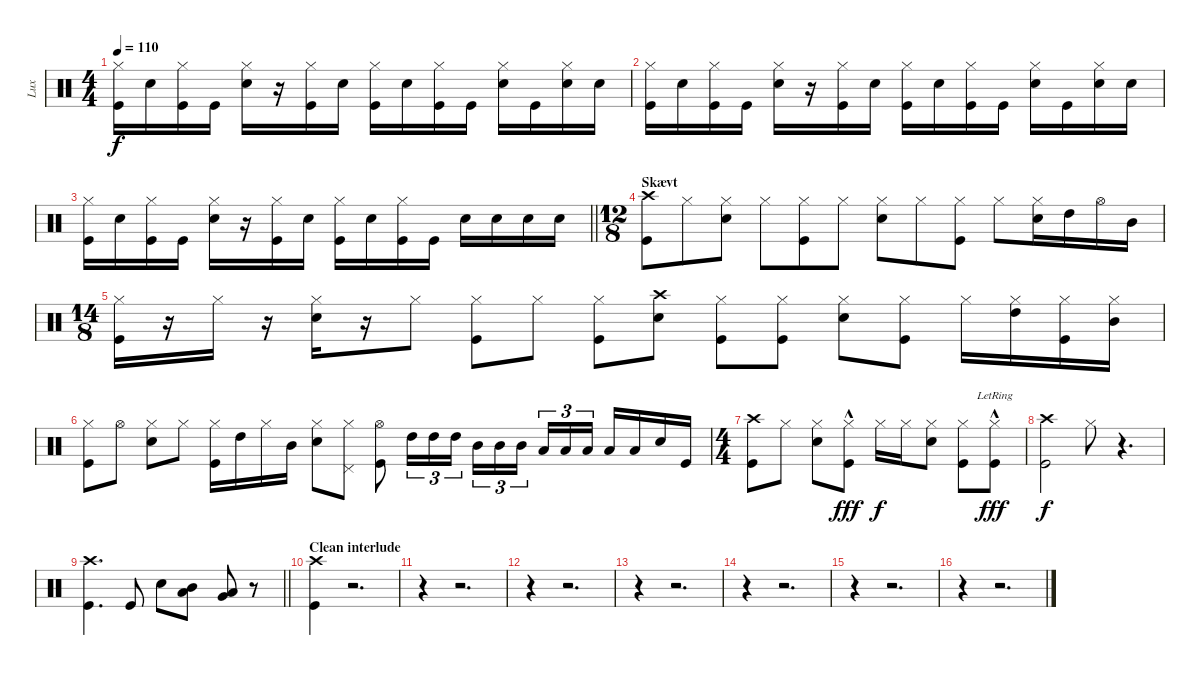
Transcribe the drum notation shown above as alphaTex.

\track ("Lux" "Lux") {instrument percussion}
\staff {score}
\articulation defaults
\ts (4 4)
\tempo 110
\clef neutral
\ks c
("Hi-Hat (closed)" "Kick (hit)").16{dy f} "Snare (hit) 2".16 ("Hi-Hat (closed)" "Kick (hit)").16 "Kick (hit)".16 ("Hi-Hat (closed)" "Snare (hit) 2").16 r.16 ("Hi-Hat (closed)" "Kick (hit)").16 "Snare (hit) 2".16 ("Hi-Hat (closed)" "Kick (hit)").16 "Snare (hit) 2".16 ("Hi-Hat (closed)" "Kick (hit)").16 "Kick (hit)".16 ("Hi-Hat (closed)" "Snare (hit) 2").16 "Kick (hit)".16 ("Hi-Hat (closed)" "Snare (hit) 2").16 "Snare (hit) 2".16 |
("Hi-Hat (closed)" "Kick (hit)").16 "Snare (hit) 2".16 ("Hi-Hat (closed)" "Kick (hit)").16 "Kick (hit)".16 ("Hi-Hat (closed)" "Snare (hit) 2").16 r.16 ("Hi-Hat (closed)" "Kick (hit)").16 "Snare (hit) 2".16 ("Hi-Hat (closed)" "Kick (hit)").16 "Snare (hit) 2".16 ("Hi-Hat (closed)" "Kick (hit)").16 "Kick (hit)".16 ("Hi-Hat (closed)" "Snare (hit) 2").16 "Kick (hit)".16 ("Hi-Hat (closed)" "Snare (hit) 2").16 "Snare (hit) 2".16 |
\barLineRight lightlight
("Hi-Hat (closed)" "Kick (hit)").16 "Snare (hit) 2".16 ("Hi-Hat (closed)" "Kick (hit)").16 "Kick (hit)".16 ("Hi-Hat (closed)" "Snare (hit) 2").16 r.16 ("Hi-Hat (closed)" "Kick (hit)").16 "Snare (hit) 2".16 ("Hi-Hat (closed)" "Kick (hit)").16 "Snare (hit) 2".16 ("Hi-Hat (closed)" "Kick (hit)").16 "Kick (hit)".16 "Snare (hit) 2".16 "Snare (hit) 2".16 "Snare (hit) 2".16 "Snare (hit) 2".16 |
\ts (12 8)
\section ("" "Skævt")
("Crash high (hit)" "Kick (hit)").8 "Hi-Hat (closed)".8 ("Hi-Hat (closed)" "Snare (hit) 2").8 "Hi-Hat (closed)".8 ("Hi-Hat (closed)" "Kick (hit)").8 "Hi-Hat (closed)".8 ("Hi-Hat (closed)" "Snare (hit) 2").8 "Hi-Hat (closed)".8 ("Hi-Hat (closed)" "Kick (hit)").8 "Hi-Hat (closed)".8 ("Hi-Hat (closed)" "Snare (hit) 2").16 "High Tom (hit)".16 "Hi-Hat (open)".16 "Mid Tom (hit)".16 |
\ts (14 8)
("Hi-Hat (closed)" "Kick (hit)").16 r.16 "Hi-Hat (closed)".16 r.16 ("Hi-Hat (closed)" "Snare (hit) 2").16 r.16 "Hi-Hat (closed)".8 ("Hi-Hat (closed)" "Kick (hit)").8 "Hi-Hat (closed)".8 ("Hi-Hat (closed)" "Kick (hit)").8 ("Crash high (hit)" "Snare (hit) 2").8 ("Hi-Hat (closed)" "Kick (hit)").8 ("Hi-Hat (closed)" "Kick (hit)").8 ("Hi-Hat (closed)" "Snare (hit) 2").8 ("Hi-Hat (closed)" "Kick (hit)").8 "Hi-Hat (closed)".16 ("Hi-Hat (closed)" "High Tom (hit)").16 ("Hi-Hat (closed)" "Kick (hit)").16 ("Hi-Hat (closed)" "Mid Tom (hit)").16 |
("Hi-Hat (closed)" "Kick (hit)").8 "Hi-Hat (open)".8 ("Hi-Hat (closed)" "Snare (hit) 2").8 "Hi-Hat (closed)".8 ("Hi-Hat (closed)" "Kick (hit)").16 "High Tom (hit)".16 "Hi-Hat (closed)".16 "Mid Tom (hit)".16 ("Hi-Hat (closed)" "Snare (hit) 2").8 ("Hi-Hat (closed)" "Pedal Hi-Hat (hit)").8 ("Hi-Hat (open)" "Kick (hit)").8 "High Tom (hit)".16{tu (3 2)} "High Tom (hit)".16{tu (3 2)} "High Tom (hit)".16{tu (3 2)} "Mid Tom (hit)".16{tu (3 2)} "Mid Tom (hit)".16{tu (3 2)} "Mid Tom (hit)".16{tu (3 2)} "Low Tom (hit)".16{tu (3 2)} "Low Tom (hit)".16{tu (3 2)} "Low Tom (hit)".16{tu (3 2)} "Low Tom (hit)".16 "Low Tom (hit)".16 "Snare (hit) 2".16 "Kick (hit)".16 |
\ts (4 4)
("Crash high (hit)" "Kick (hit)").8 "Hi-Hat (closed)".8 ("Hi-Hat (closed)" "Snare (hit) 2").8 ("Hi-Hat (closed)"{hac} "Kick (hit)").8{dy fff} "Hi-Hat (closed)".16{dy f} "Hi-Hat (closed)".16 ("Hi-Hat (closed)" "Snare (hit) 2").8 ("Hi-Hat (closed)" "Kick (hit)").8 ("Hi-Hat (closed)"{hac} "Kick (hit)"{lr}).8{dy fff} |
("Crash high (hit)" "Kick (hit)").2{dy f} "Hi-Hat (closed)".8 r.4{d} |
\barLineRight lightlight
("Crash high (hit)" "Kick (hit)").4{d} "Kick (hit)".8 "Snare (hit) 2".8 ("Mid Tom (hit)" "Low Tom (hit)").8 ("Low Tom (hit)" "Very Low Tom (hit)").8 r.8 |
\section ("" "Clean interlude")
("Crash high (hit)" "Kick (hit)").4 r.2{d} |
r.4 r.2{d} |
r.4 r.2{d} |
r.4 r.2{d} |
r.4 r.2{d} |
r.4 r.2{d} |
r.4 r.2{d}
